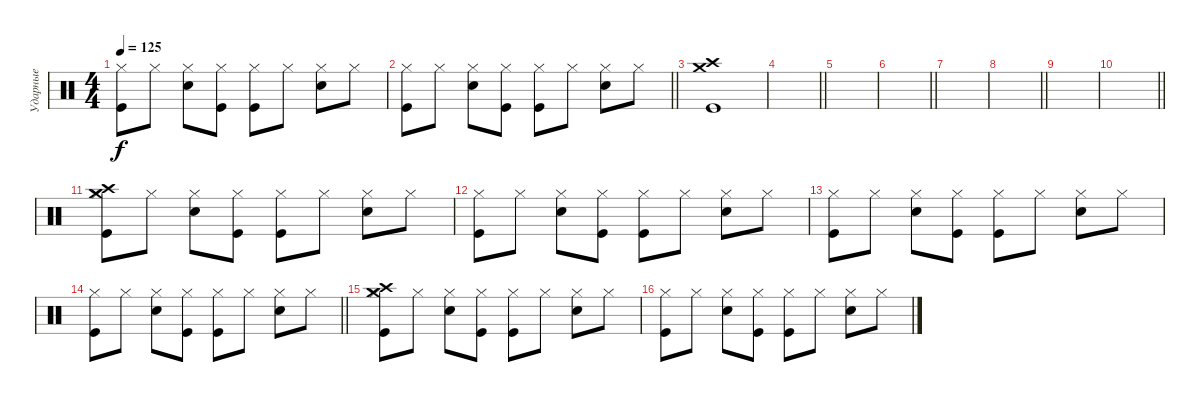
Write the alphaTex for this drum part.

\track ("Ударные" "Ударные") {instrument percussion}
\staff {score}
\articulation defaults
\ts (4 4)
\tempo 125
\clef neutral
\ks c
("Kick (hit)" "Hi-Hat (closed)").8{dy f} "Hi-Hat (closed)".8 ("Snare (hit) 2" "Hi-Hat (closed)").8 ("Kick (hit)" "Hi-Hat (closed)").8 ("Kick (hit)" "Hi-Hat (closed)").8 "Hi-Hat (closed)".8 ("Snare (hit) 2" "Hi-Hat (closed)").8 "Hi-Hat (closed)".8 |
\barLineRight lightlight
("Kick (hit)" "Hi-Hat (closed)").8 "Hi-Hat (closed)".8 ("Snare (hit) 2" "Hi-Hat (closed)").8 ("Kick (hit)" "Hi-Hat (closed)").8 ("Kick (hit)" "Hi-Hat (closed)").8 "Hi-Hat (closed)".8 ("Snare (hit) 2" "Hi-Hat (closed)").8 "Hi-Hat (closed)".8 |
("Kick (hit)" "Crash high (hit)" "Crash medium (hit)").1 |
\barLineRight lightlight
|
|
\barLineRight lightlight
|
|
\barLineRight lightlight
|
|
\barLineRight lightlight
|
("Kick (hit)" "Crash high (hit)" "Crash medium (hit)" "Hi-Hat (closed)").8 "Hi-Hat (closed)".8 ("Snare (hit) 2" "Hi-Hat (closed)").8 ("Kick (hit)" "Hi-Hat (closed)").8 ("Kick (hit)" "Hi-Hat (closed)").8 "Hi-Hat (closed)".8 ("Snare (hit) 2" "Hi-Hat (closed)").8 "Hi-Hat (closed)".8 |
("Kick (hit)" "Hi-Hat (closed)").8 "Hi-Hat (closed)".8 ("Snare (hit) 2" "Hi-Hat (closed)").8 ("Kick (hit)" "Hi-Hat (closed)").8 ("Kick (hit)" "Hi-Hat (closed)").8 "Hi-Hat (closed)".8 ("Snare (hit) 2" "Hi-Hat (closed)").8 "Hi-Hat (closed)".8 |
("Kick (hit)" "Hi-Hat (closed)").8 "Hi-Hat (closed)".8 ("Snare (hit) 2" "Hi-Hat (closed)").8 ("Kick (hit)" "Hi-Hat (closed)").8 ("Kick (hit)" "Hi-Hat (closed)").8 "Hi-Hat (closed)".8 ("Snare (hit) 2" "Hi-Hat (closed)").8 "Hi-Hat (closed)".8 |
\barLineRight lightlight
("Kick (hit)" "Hi-Hat (closed)").8 "Hi-Hat (closed)".8 ("Snare (hit) 2" "Hi-Hat (closed)").8 ("Kick (hit)" "Hi-Hat (closed)").8 ("Kick (hit)" "Hi-Hat (closed)").8 "Hi-Hat (closed)".8 ("Snare (hit) 2" "Hi-Hat (closed)").8 "Hi-Hat (closed)".8 |
("Kick (hit)" "Crash high (hit)" "Crash medium (hit)" "Hi-Hat (closed)").8 "Hi-Hat (closed)".8 ("Snare (hit) 2" "Hi-Hat (closed)").8 ("Kick (hit)" "Hi-Hat (closed)").8 ("Kick (hit)" "Hi-Hat (closed)").8 "Hi-Hat (closed)".8 ("Snare (hit) 2" "Hi-Hat (closed)").8 "Hi-Hat (closed)".8 |
("Kick (hit)" "Hi-Hat (closed)").8 "Hi-Hat (closed)".8 ("Snare (hit) 2" "Hi-Hat (closed)").8 ("Kick (hit)" "Hi-Hat (closed)").8 ("Kick (hit)" "Hi-Hat (closed)").8 "Hi-Hat (closed)".8 ("Snare (hit) 2" "Hi-Hat (closed)").8 "Hi-Hat (closed)".8
